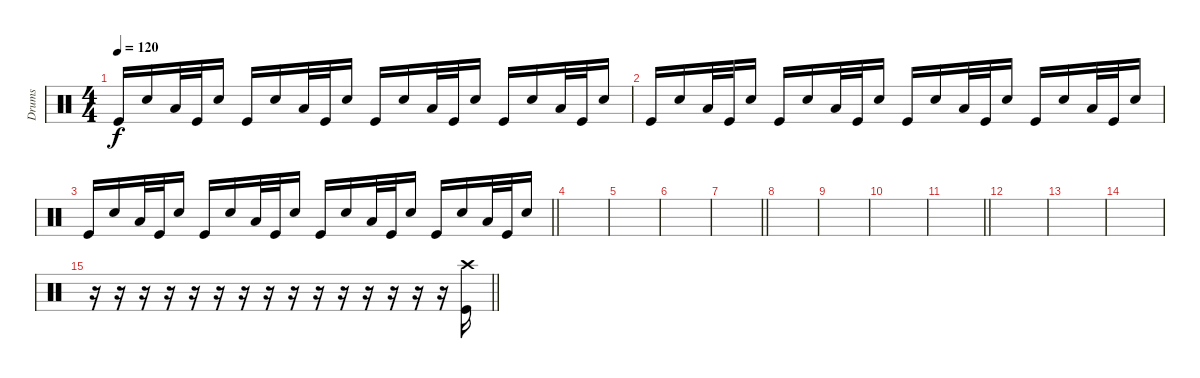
\track ("Drums" "Drums") {instrument percussion}
\staff
\articulation defaults
\ts (4 4)
\tempo 120
\clef neutral
\ks c "Kick (hit)".16{dy f} "Electric Snare (hit)".16 "Low Floor Tom (hit)".32 "Kick (hit)".32 "Electric Snare (hit)".16 "Kick (hit)".16 "Electric Snare (hit)".16 "Low Floor Tom (hit)".32 "Kick (hit)".32 "Electric Snare (hit)".16 "Kick (hit)".16 "Electric Snare (hit)".16 "Low Floor Tom (hit)".32 "Kick (hit)".32 "Electric Snare (hit)".16 "Kick (hit)".16 "Electric Snare (hit)".16 "Low Floor Tom (hit)".32 "Kick (hit)".32 "Electric Snare (hit)".16
|
"Kick (hit)".16 "Electric Snare (hit)".16 "Low Floor Tom (hit)".32 "Kick (hit)".32 "Electric Snare (hit)".16 "Kick (hit)".16 "Electric Snare (hit)".16 "Low Floor Tom (hit)".32 "Kick (hit)".32 "Electric Snare (hit)".16 "Kick (hit)".16 "Electric Snare (hit)".16 "Low Floor Tom (hit)".32 "Kick (hit)".32 "Electric Snare (hit)".16 "Kick (hit)".16 "Electric Snare (hit)".16 "Low Floor Tom (hit)".32 "Kick (hit)".32 "Electric Snare (hit)".16 |
\barLineRight lightlight "Kick (hit)".16 "Electric Snare (hit)".16 "Low Floor Tom (hit)".32 "Kick (hit)".32 "Electric Snare (hit)".16 "Kick (hit)".16 "Electric Snare (hit)".16 "Low Floor Tom (hit)".32 "Kick (hit)".32 "Electric Snare (hit)".16 "Kick (hit)".16 "Electric Snare (hit)".16 "Low Floor Tom (hit)".32 "Kick (hit)".32 "Electric Snare (hit)".16 "Kick (hit)".16 "Electric Snare (hit)".16 "Low Floor Tom (hit)".32 "Kick (hit)".32 "Electric Snare (hit)".16
|
|
|
|
\barLineRight lightlight
|
|
|
|
\barLineRight lightlight
|
|
|
|
\barLineRight lightlight
r.16 r.16 r.16 r.16 r.16 r.16 r.16 r.16 r.16 r.16 r.16 r.16 r.16 r.16 r.16 ("Crash high (hit)" "Kick (hit)").16
